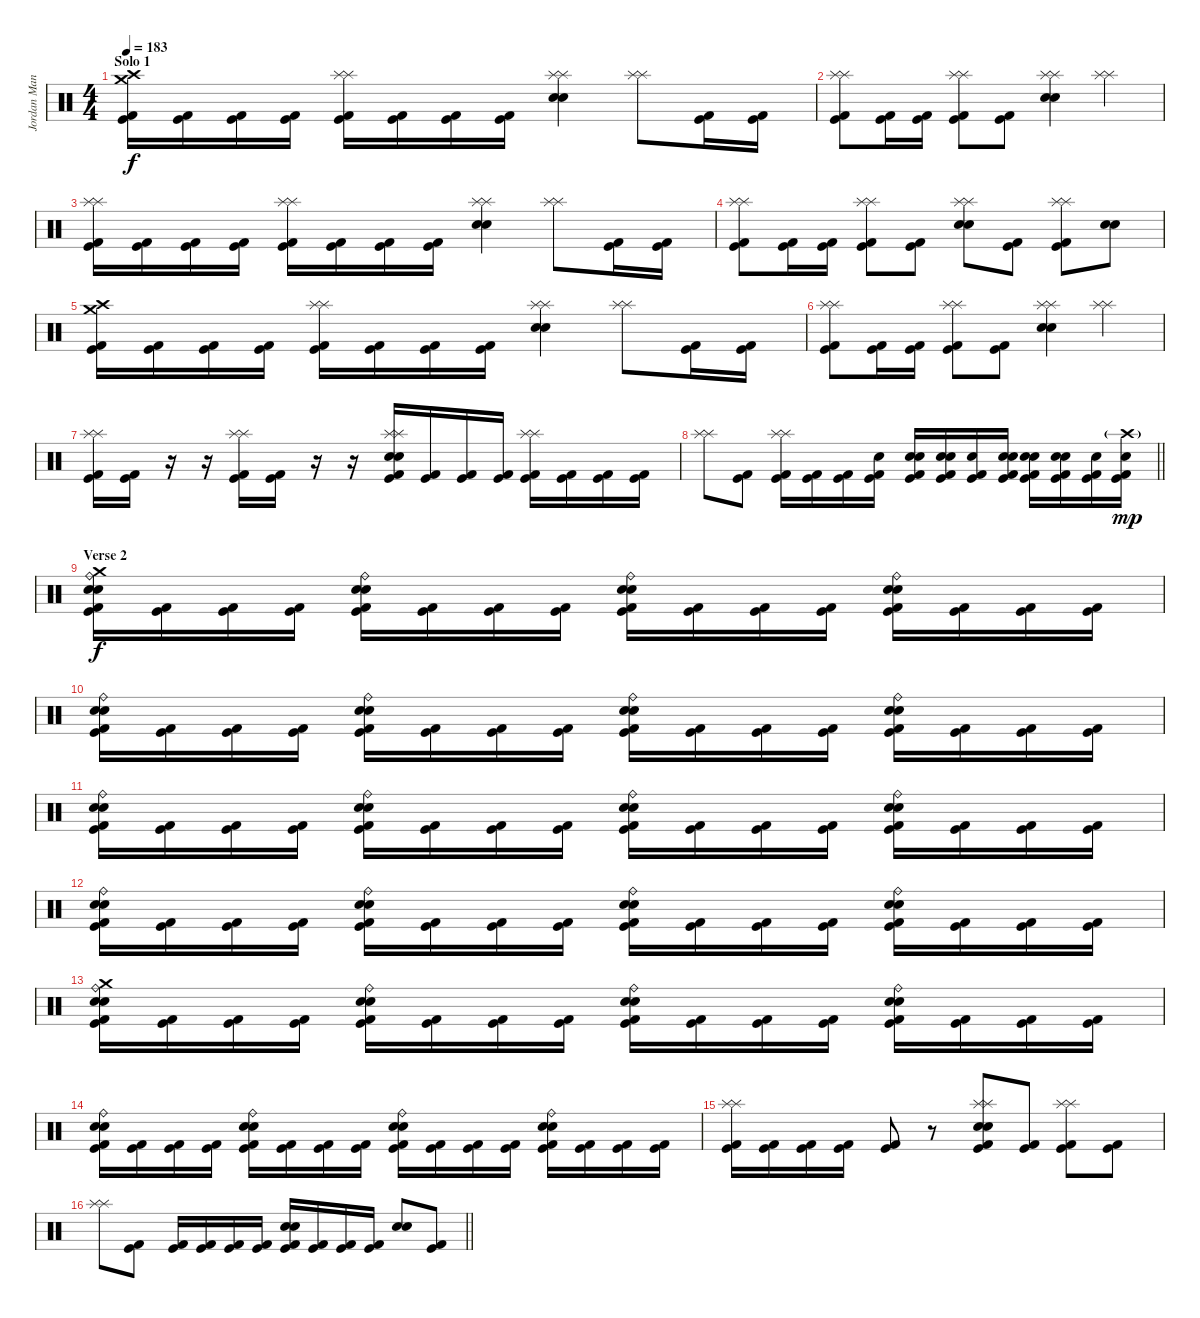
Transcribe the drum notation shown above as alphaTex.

\track ("Jordan Mancino" "Jordan Man") {instrument percussion}
\staff {score}
\articulation defaults
\ts (4 4)
\section ("" "Solo 1")
\tempo 183
\clef neutral
\ks c
("Crash medium (hit)" "Crash high (hit)" "Kick (hit)" "Kick (hit) 2").16{dy f} ("Kick (hit)" "Kick (hit) 2").16 ("Kick (hit)" "Kick (hit) 2").16 ("Kick (hit)" "Kick (hit) 2").16 ("Splash (hit)" "Splash (hit)" "Kick (hit)" "Kick (hit) 2").16 ("Kick (hit)" "Kick (hit) 2").16 ("Kick (hit)" "Kick (hit) 2").16 ("Kick (hit)" "Kick (hit) 2").16 ("Splash (hit)" "Splash (hit)" "Electric Snare (hit)" "Snare (hit) 2").4 ("Splash (hit)" "Splash (hit)").8 ("Kick (hit)" "Kick (hit) 2").16 ("Kick (hit)" "Kick (hit) 2").16 |
("Splash (hit)" "Splash (hit)" "Kick (hit)" "Kick (hit) 2").8 ("Kick (hit)" "Kick (hit) 2").16 ("Kick (hit)" "Kick (hit) 2").16 ("Splash (hit)" "Splash (hit)" "Kick (hit)" "Kick (hit) 2").8 ("Kick (hit)" "Kick (hit) 2").8 ("Splash (hit)" "Splash (hit)" "Electric Snare (hit)" "Snare (hit) 2").4 ("Splash (hit)" "Splash (hit)").4 |
("Splash (hit)" "Splash (hit)" "Kick (hit)" "Kick (hit) 2").16 ("Kick (hit)" "Kick (hit) 2").16 ("Kick (hit)" "Kick (hit) 2").16 ("Kick (hit)" "Kick (hit) 2").16 ("Splash (hit)" "Splash (hit)" "Kick (hit)" "Kick (hit) 2").16 ("Kick (hit)" "Kick (hit) 2").16 ("Kick (hit)" "Kick (hit) 2").16 ("Kick (hit)" "Kick (hit) 2").16 ("Splash (hit)" "Splash (hit)" "Electric Snare (hit)" "Snare (hit) 2").4 ("Splash (hit)" "Splash (hit)").8 ("Kick (hit)" "Kick (hit) 2").16 ("Kick (hit)" "Kick (hit) 2").16 |
("Splash (hit)" "Splash (hit)" "Kick (hit)" "Kick (hit) 2").8 ("Kick (hit)" "Kick (hit) 2").16 ("Kick (hit)" "Kick (hit) 2").16 ("Splash (hit)" "Splash (hit)" "Kick (hit)" "Kick (hit) 2").8 ("Kick (hit)" "Kick (hit) 2").8 ("Splash (hit)" "Splash (hit)" "Electric Snare (hit)" "Snare (hit) 2").8 ("Kick (hit)" "Kick (hit) 2").8 ("Splash (hit)" "Splash (hit)" "Kick (hit)" "Kick (hit) 2").8 ("Electric Snare (hit)" "Snare (hit) 2").8 |
("Crash medium (hit)" "Crash high (hit)" "Kick (hit)" "Kick (hit) 2").16 ("Kick (hit)" "Kick (hit) 2").16 ("Kick (hit)" "Kick (hit) 2").16 ("Kick (hit)" "Kick (hit) 2").16 ("Splash (hit)" "Splash (hit)" "Kick (hit)" "Kick (hit) 2").16 ("Kick (hit)" "Kick (hit) 2").16 ("Kick (hit)" "Kick (hit) 2").16 ("Kick (hit)" "Kick (hit) 2").16 ("Splash (hit)" "Splash (hit)" "Electric Snare (hit)" "Snare (hit) 2").4 ("Splash (hit)" "Splash (hit)").8 ("Kick (hit)" "Kick (hit) 2").16 ("Kick (hit)" "Kick (hit) 2").16 |
("Splash (hit)" "Splash (hit)" "Kick (hit)" "Kick (hit) 2").8 ("Kick (hit)" "Kick (hit) 2").16 ("Kick (hit)" "Kick (hit) 2").16 ("Splash (hit)" "Splash (hit)" "Kick (hit)" "Kick (hit) 2").8 ("Kick (hit)" "Kick (hit) 2").8 ("Splash (hit)" "Splash (hit)" "Electric Snare (hit)" "Snare (hit) 2").4 ("Splash (hit)" "Splash (hit)").4 |
("Splash (hit)" "Splash (hit)" "Kick (hit)" "Kick (hit) 2").16 ("Kick (hit)" "Kick (hit) 2").16 r.16 r.16 ("Splash (hit)" "Splash (hit)" "Kick (hit)" "Kick (hit) 2").16 ("Kick (hit)" "Kick (hit) 2").16 r.16 r.16 ("Splash (hit)" "Splash (hit)" "Electric Snare (hit)" "Snare (hit) 2" "Kick (hit)" "Kick (hit) 2").16 ("Kick (hit)" "Kick (hit) 2").16 ("Kick (hit)" "Kick (hit) 2").16 ("Kick (hit)" "Kick (hit) 2").16 ("Splash (hit)" "Splash (hit)" "Kick (hit)" "Kick (hit) 2").16 ("Kick (hit)" "Kick (hit) 2").16 ("Kick (hit)" "Kick (hit) 2").16 ("Kick (hit)" "Kick (hit) 2").16 |
\barLineRight lightlight
("Splash (hit)" "Splash (hit)").8 ("Kick (hit)" "Kick (hit) 2").8 ("Splash (hit)" "Splash (hit)" "Kick (hit)" "Kick (hit) 2").16 ("Kick (hit)" "Kick (hit) 2").16 ("Kick (hit)" "Kick (hit) 2").16 ("Snare (hit) 2" "Kick (hit)" "Kick (hit) 2").16 ("Electric Snare (hit)" "Snare (hit) 2" "Kick (hit)" "Kick (hit) 2").16 ("Electric Snare (hit)" "Snare (hit) 2" "Kick (hit)" "Kick (hit) 2").16 ("Snare (hit) 2" "Kick (hit)" "Kick (hit) 2").16 ("Electric Snare (hit)" "Snare (hit) 2" "Kick (hit)" "Kick (hit) 2").16 ("Electric Snare (hit)" "Snare (hit) 2" "Kick (hit)" "Kick (hit) 2").16 ("Electric Snare (hit)" "Snare (hit) 2" "Kick (hit)" "Kick (hit) 2").16 ("Snare (hit) 2" "Kick (hit)" "Kick (hit) 2").16 ("Crash high (hit)"{g} "Snare (hit) 2" "Kick (hit)" "Kick (hit) 2").16{dy mp} |
\section ("" "Verse 2")
("Crash medium (hit)" "Ride (bell)" "Electric Snare (hit)" "Snare (hit) 2" "Kick (hit)" "Kick (hit) 2").16{dy f} ("Kick (hit)" "Kick (hit) 2").16 ("Kick (hit)" "Kick (hit) 2").16 ("Kick (hit)" "Kick (hit) 2").16 ("Ride (bell)" "Electric Snare (hit)" "Snare (hit) 2" "Kick (hit)" "Kick (hit) 2").16 ("Kick (hit)" "Kick (hit) 2").16 ("Kick (hit)" "Kick (hit) 2").16 ("Kick (hit)" "Kick (hit) 2").16 ("Ride (bell)" "Electric Snare (hit)" "Snare (hit) 2" "Kick (hit)" "Kick (hit) 2").16 ("Kick (hit)" "Kick (hit) 2").16 ("Kick (hit)" "Kick (hit) 2").16 ("Kick (hit)" "Kick (hit) 2").16 ("Ride (bell)" "Electric Snare (hit)" "Snare (hit) 2" "Kick (hit)" "Kick (hit) 2").16 ("Kick (hit)" "Kick (hit) 2").16 ("Kick (hit)" "Kick (hit) 2").16 ("Kick (hit)" "Kick (hit) 2").16 |
("Ride (bell)" "Electric Snare (hit)" "Snare (hit) 2" "Kick (hit)" "Kick (hit) 2").16 ("Kick (hit)" "Kick (hit) 2").16 ("Kick (hit)" "Kick (hit) 2").16 ("Kick (hit)" "Kick (hit) 2").16 ("Ride (bell)" "Electric Snare (hit)" "Snare (hit) 2" "Kick (hit)" "Kick (hit) 2").16 ("Kick (hit)" "Kick (hit) 2").16 ("Kick (hit)" "Kick (hit) 2").16 ("Kick (hit)" "Kick (hit) 2").16 ("Ride (bell)" "Electric Snare (hit)" "Snare (hit) 2" "Kick (hit)" "Kick (hit) 2").16 ("Kick (hit)" "Kick (hit) 2").16 ("Kick (hit)" "Kick (hit) 2").16 ("Kick (hit)" "Kick (hit) 2").16 ("Ride (bell)" "Electric Snare (hit)" "Snare (hit) 2" "Kick (hit)" "Kick (hit) 2").16 ("Kick (hit)" "Kick (hit) 2").16 ("Kick (hit)" "Kick (hit) 2").16 ("Kick (hit)" "Kick (hit) 2").16 |
("Ride (bell)" "Electric Snare (hit)" "Snare (hit) 2" "Kick (hit)" "Kick (hit) 2").16 ("Kick (hit)" "Kick (hit) 2").16 ("Kick (hit)" "Kick (hit) 2").16 ("Kick (hit)" "Kick (hit) 2").16 ("Ride (bell)" "Electric Snare (hit)" "Snare (hit) 2" "Kick (hit)" "Kick (hit) 2").16 ("Kick (hit)" "Kick (hit) 2").16 ("Kick (hit)" "Kick (hit) 2").16 ("Kick (hit)" "Kick (hit) 2").16 ("Ride (bell)" "Electric Snare (hit)" "Snare (hit) 2" "Kick (hit)" "Kick (hit) 2").16 ("Kick (hit)" "Kick (hit) 2").16 ("Kick (hit)" "Kick (hit) 2").16 ("Kick (hit)" "Kick (hit) 2").16 ("Ride (bell)" "Electric Snare (hit)" "Snare (hit) 2" "Kick (hit)" "Kick (hit) 2").16 ("Kick (hit)" "Kick (hit) 2").16 ("Kick (hit)" "Kick (hit) 2").16 ("Kick (hit)" "Kick (hit) 2").16 |
("Ride (bell)" "Electric Snare (hit)" "Snare (hit) 2" "Kick (hit)" "Kick (hit) 2").16 ("Kick (hit)" "Kick (hit) 2").16 ("Kick (hit)" "Kick (hit) 2").16 ("Kick (hit)" "Kick (hit) 2").16 ("Ride (bell)" "Electric Snare (hit)" "Snare (hit) 2" "Kick (hit)" "Kick (hit) 2").16 ("Kick (hit)" "Kick (hit) 2").16 ("Kick (hit)" "Kick (hit) 2").16 ("Kick (hit)" "Kick (hit) 2").16 ("Ride (bell)" "Electric Snare (hit)" "Snare (hit) 2" "Kick (hit)" "Kick (hit) 2").16 ("Kick (hit)" "Kick (hit) 2").16 ("Kick (hit)" "Kick (hit) 2").16 ("Kick (hit)" "Kick (hit) 2").16 ("Ride (bell)" "Electric Snare (hit)" "Snare (hit) 2" "Kick (hit)" "Kick (hit) 2").16 ("Kick (hit)" "Kick (hit) 2").16 ("Kick (hit)" "Kick (hit) 2").16 ("Kick (hit)" "Kick (hit) 2").16 |
("Crash medium (hit)" "Ride (bell)" "Electric Snare (hit)" "Snare (hit) 2" "Kick (hit)" "Kick (hit) 2").16 ("Kick (hit)" "Kick (hit) 2").16 ("Kick (hit)" "Kick (hit) 2").16 ("Kick (hit)" "Kick (hit) 2").16 ("Ride (bell)" "Electric Snare (hit)" "Snare (hit) 2" "Kick (hit)" "Kick (hit) 2").16 ("Kick (hit)" "Kick (hit) 2").16 ("Kick (hit)" "Kick (hit) 2").16 ("Kick (hit)" "Kick (hit) 2").16 ("Ride (bell)" "Electric Snare (hit)" "Snare (hit) 2" "Kick (hit)" "Kick (hit) 2").16 ("Kick (hit)" "Kick (hit) 2").16 ("Kick (hit)" "Kick (hit) 2").16 ("Kick (hit)" "Kick (hit) 2").16 ("Ride (bell)" "Electric Snare (hit)" "Snare (hit) 2" "Kick (hit)" "Kick (hit) 2").16 ("Kick (hit)" "Kick (hit) 2").16 ("Kick (hit)" "Kick (hit) 2").16 ("Kick (hit)" "Kick (hit) 2").16 |
("Ride (bell)" "Electric Snare (hit)" "Snare (hit) 2" "Kick (hit)" "Kick (hit) 2").16 ("Kick (hit)" "Kick (hit) 2").16 ("Kick (hit)" "Kick (hit) 2").16 ("Kick (hit)" "Kick (hit) 2").16 ("Ride (bell)" "Electric Snare (hit)" "Snare (hit) 2" "Kick (hit)" "Kick (hit) 2").16 ("Kick (hit)" "Kick (hit) 2").16 ("Kick (hit)" "Kick (hit) 2").16 ("Kick (hit)" "Kick (hit) 2").16 ("Ride (bell)" "Electric Snare (hit)" "Snare (hit) 2" "Kick (hit)" "Kick (hit) 2").16 ("Kick (hit)" "Kick (hit) 2").16 ("Kick (hit)" "Kick (hit) 2").16 ("Kick (hit)" "Kick (hit) 2").16 ("Ride (bell)" "Electric Snare (hit)" "Snare (hit) 2" "Kick (hit)" "Kick (hit) 2").16 ("Kick (hit)" "Kick (hit) 2").16 ("Kick (hit)" "Kick (hit) 2").16 ("Kick (hit)" "Kick (hit) 2").16 |
("Splash (hit)" "Splash (hit)" "Kick (hit)" "Kick (hit) 2").16 ("Kick (hit)" "Kick (hit) 2").16 ("Kick (hit)" "Kick (hit) 2").16 ("Kick (hit)" "Kick (hit) 2").16 ("Kick (hit)" "Kick (hit) 2").8 r.8 ("Splash (hit)" "Splash (hit)" "Electric Snare (hit)" "Snare (hit) 2" "Kick (hit)" "Kick (hit) 2").8 ("Kick (hit)" "Kick (hit) 2").8 ("Splash (hit)" "Splash (hit)" "Kick (hit)" "Kick (hit) 2").8 ("Kick (hit)" "Kick (hit) 2").8 |
\barLineRight lightlight
("Splash (hit)" "Splash (hit)").8 ("Kick (hit)" "Kick (hit) 2").8 ("Kick (hit)" "Kick (hit) 2").16 ("Kick (hit)" "Kick (hit) 2").16 ("Kick (hit)" "Kick (hit) 2").16 ("Kick (hit)" "Kick (hit) 2").16 ("Electric Snare (hit)" "Snare (hit) 2" "Kick (hit)" "Kick (hit) 2").16 ("Kick (hit)" "Kick (hit) 2").16 ("Kick (hit)" "Kick (hit) 2").16 ("Kick (hit)" "Kick (hit) 2").16 ("Electric Snare (hit)" "Snare (hit) 2").8 ("Kick (hit)" "Kick (hit) 2").8
